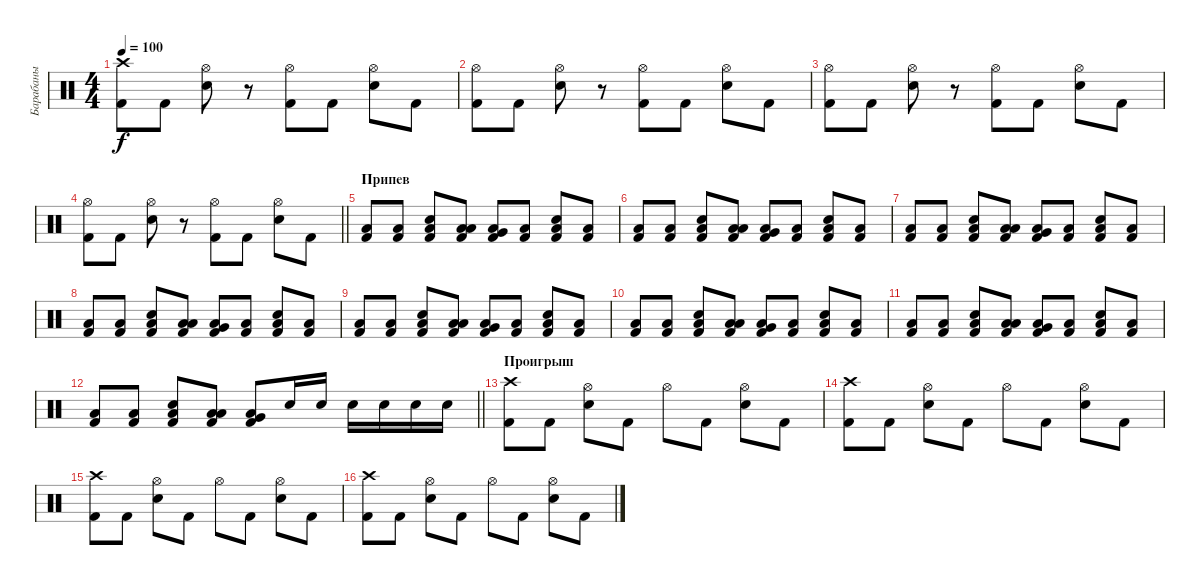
\track ("Барабаны" "Барабаны") {instrument percussion}
\staff {score}
\articulation defaults
\ts (4 4)
\tempo 100
\clef neutral
\ks c
("Crash high (hit)" "Kick (hit) 2").8{dy f} "Kick (hit) 2".8 ("Hi-Hat (open)" "Electric Snare (hit)").8 r.8 ("Hi-Hat (open)" "Kick (hit) 2").8 "Kick (hit) 2".8 ("Hi-Hat (open)" "Electric Snare (hit)").8 "Kick (hit) 2".8 |
("Hi-Hat (open)" "Kick (hit) 2").8 "Kick (hit) 2".8 ("Hi-Hat (open)" "Electric Snare (hit)").8 r.8 ("Hi-Hat (open)" "Kick (hit) 2").8 "Kick (hit) 2".8 ("Hi-Hat (open)" "Electric Snare (hit)").8 "Kick (hit) 2".8 |
("Hi-Hat (open)" "Kick (hit) 2").8 "Kick (hit) 2".8 ("Hi-Hat (open)" "Electric Snare (hit)").8 r.8 ("Hi-Hat (open)" "Kick (hit) 2").8 "Kick (hit) 2".8 ("Hi-Hat (open)" "Electric Snare (hit)").8 "Kick (hit) 2".8 |
\barLineRight lightlight
("Hi-Hat (open)" "Kick (hit) 2").8 "Kick (hit) 2".8 ("Hi-Hat (open)" "Electric Snare (hit)").8 r.8 ("Hi-Hat (open)" "Kick (hit) 2").8 "Kick (hit) 2".8 ("Hi-Hat (open)" "Electric Snare (hit)").8 "Kick (hit) 2".8 |
\section ("" "Припев")
("Low Floor Tom (hit)" "Kick (hit) 2").8 ("Low Floor Tom (hit)" "Kick (hit) 2").8 ("Electric Snare (hit)" "Low Floor Tom (hit)" "Kick (hit) 2").8 ("Low Tom (hit)" "Low Floor Tom (hit)" "Kick (hit) 2").8 ("Very Low Tom (hit)" "Low Floor Tom (hit)" "Kick (hit) 2").8 ("Low Floor Tom (hit)" "Kick (hit) 2").8 ("Electric Snare (hit)" "Low Floor Tom (hit)" "Kick (hit) 2").8 ("Low Floor Tom (hit)" "Kick (hit) 2").8 |
("Low Floor Tom (hit)" "Kick (hit) 2").8 ("Low Floor Tom (hit)" "Kick (hit) 2").8 ("Electric Snare (hit)" "Low Floor Tom (hit)" "Kick (hit) 2").8 ("Low Tom (hit)" "Low Floor Tom (hit)" "Kick (hit) 2").8 ("Very Low Tom (hit)" "Low Floor Tom (hit)" "Kick (hit) 2").8 ("Low Floor Tom (hit)" "Kick (hit) 2").8 ("Electric Snare (hit)" "Low Floor Tom (hit)" "Kick (hit) 2").8 ("Low Floor Tom (hit)" "Kick (hit) 2").8 |
("Low Floor Tom (hit)" "Kick (hit) 2").8 ("Low Floor Tom (hit)" "Kick (hit) 2").8 ("Electric Snare (hit)" "Low Floor Tom (hit)" "Kick (hit) 2").8 ("Low Tom (hit)" "Low Floor Tom (hit)" "Kick (hit) 2").8 ("Very Low Tom (hit)" "Low Floor Tom (hit)" "Kick (hit) 2").8 ("Low Floor Tom (hit)" "Kick (hit) 2").8 ("Electric Snare (hit)" "Low Floor Tom (hit)" "Kick (hit) 2").8 ("Low Floor Tom (hit)" "Kick (hit) 2").8 |
("Low Floor Tom (hit)" "Kick (hit) 2").8 ("Low Floor Tom (hit)" "Kick (hit) 2").8 ("Electric Snare (hit)" "Low Floor Tom (hit)" "Kick (hit) 2").8 ("Low Tom (hit)" "Low Floor Tom (hit)" "Kick (hit) 2").8 ("Very Low Tom (hit)" "Low Floor Tom (hit)" "Kick (hit) 2").8 ("Low Floor Tom (hit)" "Kick (hit) 2").8 ("Electric Snare (hit)" "Low Floor Tom (hit)" "Kick (hit) 2").8 ("Low Floor Tom (hit)" "Kick (hit) 2").8 |
("Low Floor Tom (hit)" "Kick (hit) 2").8 ("Low Floor Tom (hit)" "Kick (hit) 2").8 ("Electric Snare (hit)" "Low Floor Tom (hit)" "Kick (hit) 2").8 ("Low Tom (hit)" "Low Floor Tom (hit)" "Kick (hit) 2").8 ("Very Low Tom (hit)" "Low Floor Tom (hit)" "Kick (hit) 2").8 ("Low Floor Tom (hit)" "Kick (hit) 2").8 ("Electric Snare (hit)" "Low Floor Tom (hit)" "Kick (hit) 2").8 ("Low Floor Tom (hit)" "Kick (hit) 2").8 |
("Low Floor Tom (hit)" "Kick (hit) 2").8 ("Low Floor Tom (hit)" "Kick (hit) 2").8 ("Electric Snare (hit)" "Low Floor Tom (hit)" "Kick (hit) 2").8 ("Low Tom (hit)" "Low Floor Tom (hit)" "Kick (hit) 2").8 ("Very Low Tom (hit)" "Low Floor Tom (hit)" "Kick (hit) 2").8 ("Low Floor Tom (hit)" "Kick (hit) 2").8 ("Electric Snare (hit)" "Low Floor Tom (hit)" "Kick (hit) 2").8 ("Low Floor Tom (hit)" "Kick (hit) 2").8 |
("Low Floor Tom (hit)" "Kick (hit) 2").8 ("Low Floor Tom (hit)" "Kick (hit) 2").8 ("Electric Snare (hit)" "Low Floor Tom (hit)" "Kick (hit) 2").8 ("Low Tom (hit)" "Low Floor Tom (hit)" "Kick (hit) 2").8 ("Very Low Tom (hit)" "Low Floor Tom (hit)" "Kick (hit) 2").8 ("Low Floor Tom (hit)" "Kick (hit) 2").8 ("Electric Snare (hit)" "Low Floor Tom (hit)" "Kick (hit) 2").8 ("Low Floor Tom (hit)" "Kick (hit) 2").8 |
\barLineRight lightlight
("Low Floor Tom (hit)" "Kick (hit) 2").8 ("Low Floor Tom (hit)" "Kick (hit) 2").8 ("Electric Snare (hit)" "Low Floor Tom (hit)" "Kick (hit) 2").8 ("Low Tom (hit)" "Low Floor Tom (hit)" "Kick (hit) 2").8 ("Very Low Tom (hit)" "Low Floor Tom (hit)" "Kick (hit) 2").8 "Electric Snare (hit)".16 "Electric Snare (hit)".16 "Electric Snare (hit)".16 "Electric Snare (hit)".16 "Electric Snare (hit)".16 "Electric Snare (hit)".16 |
\section ("" "Проигрыш")
("Crash high (hit)" "Kick (hit) 2").8 "Kick (hit) 2".8 ("Hi-Hat (open)" "Electric Snare (hit)").8 "Kick (hit) 2".8 "Hi-Hat (open)".8 "Kick (hit) 2".8 ("Hi-Hat (open)" "Electric Snare (hit)").8 "Kick (hit) 2".8 |
("Crash high (hit)" "Kick (hit) 2").8 "Kick (hit) 2".8 ("Hi-Hat (open)" "Electric Snare (hit)").8 "Kick (hit) 2".8 "Hi-Hat (open)".8 "Kick (hit) 2".8 ("Hi-Hat (open)" "Electric Snare (hit)").8 "Kick (hit) 2".8 |
("Crash high (hit)" "Kick (hit) 2").8 "Kick (hit) 2".8 ("Hi-Hat (open)" "Electric Snare (hit)").8 "Kick (hit) 2".8 "Hi-Hat (open)".8 "Kick (hit) 2".8 ("Hi-Hat (open)" "Electric Snare (hit)").8 "Kick (hit) 2".8 |
("Crash high (hit)" "Kick (hit) 2").8 "Kick (hit) 2".8 ("Hi-Hat (open)" "Electric Snare (hit)").8 "Kick (hit) 2".8 "Hi-Hat (open)".8 "Kick (hit) 2".8 ("Hi-Hat (open)" "Electric Snare (hit)").8 "Kick (hit) 2".8
